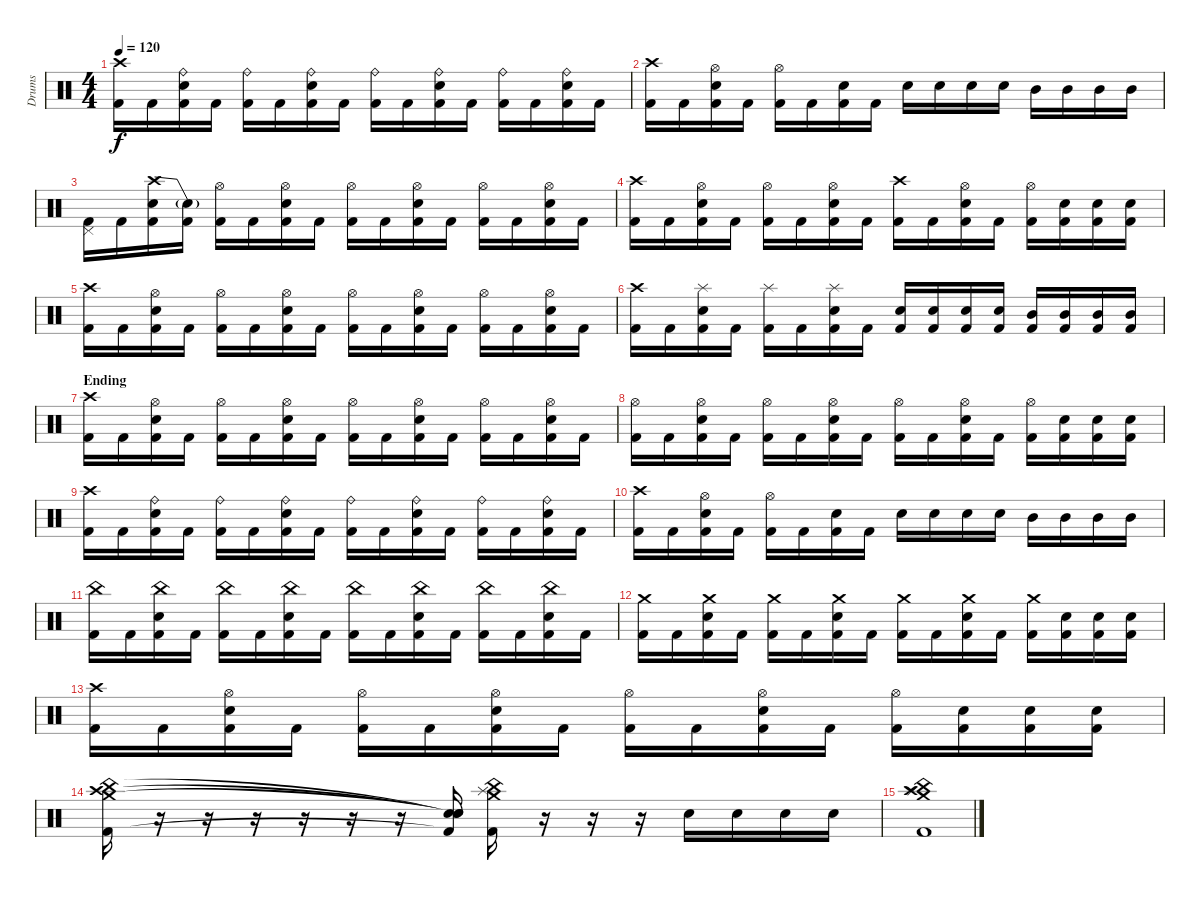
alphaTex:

\track ("Drums" "Drums") {instrument percussion}
\staff {score}
\articulation defaults
\ts (4 4)
\tempo 120
\clef neutral
\ks c
("Crash high (hit)" "Kick (hit) 2").16{dy f} "Kick (hit) 2".16 ("Ride (bell)" "Kick (hit) 2" "Electric Snare (hit)").16 "Kick (hit) 2".16 ("Ride (bell)" "Kick (hit) 2").16 "Kick (hit) 2".16 ("Ride (bell)" "Kick (hit) 2" "Electric Snare (hit)").16 "Kick (hit) 2".16 ("Ride (bell)" "Kick (hit) 2").16 "Kick (hit) 2".16 ("Ride (bell)" "Kick (hit) 2" "Electric Snare (hit)").16 "Kick (hit) 2".16 ("Ride (bell)" "Kick (hit) 2").16 "Kick (hit) 2".16 ("Ride (bell)" "Kick (hit) 2" "Electric Snare (hit)").16 "Kick (hit) 2".16 |
("Crash high (hit)" "Kick (hit) 2").16 "Kick (hit) 2".16 ("Hi-Hat (open)" "Kick (hit) 2" "Electric Snare (hit)").16 "Kick (hit) 2".16 ("Hi-Hat (open)" "Kick (hit) 2").16 "Kick (hit) 2".16 ("Kick (hit) 2" "Electric Snare (hit)").16 "Kick (hit) 2".16 "Electric Snare (hit)".16 "Electric Snare (hit)".16 "Electric Snare (hit)".16 "Electric Snare (hit)".16 "Mid Tom (hit)".16 "Mid Tom (hit)".16 "Mid Tom (hit)".16 "Mid Tom (hit)".16 |
("Pedal Hi-Hat (hit)" "Kick (hit) 2").16 "Kick (hit) 2".16 ("Crash high (hit)"{be (bend 0 0 60 12)} "Kick (hit) 2" "Electric Snare (hit)").16 ("Snare (hit)"{t} "Kick (hit) 2").16 ("Hi-Hat (open)" "Kick (hit) 2").16 "Kick (hit) 2".16 ("Hi-Hat (open)" "Kick (hit) 2" "Electric Snare (hit)").16 "Kick (hit) 2".16 ("Hi-Hat (open)" "Kick (hit) 2").16 "Kick (hit) 2".16 ("Hi-Hat (open)" "Kick (hit) 2" "Electric Snare (hit)").16 "Kick (hit) 2".16 ("Hi-Hat (open)" "Kick (hit) 2").16 "Kick (hit) 2".16 ("Hi-Hat (open)" "Kick (hit) 2" "Electric Snare (hit)").16 "Kick (hit) 2".16 |
("Crash high (hit)" "Kick (hit) 2").16 "Kick (hit) 2".16 ("Hi-Hat (open)" "Kick (hit) 2" "Electric Snare (hit)").16 "Kick (hit) 2".16 ("Hi-Hat (open)" "Kick (hit) 2").16 "Kick (hit) 2".16 ("Hi-Hat (open)" "Kick (hit) 2" "Electric Snare (hit)").16 "Kick (hit) 2".16 ("Crash high (hit)" "Kick (hit) 2").16 "Kick (hit) 2".16 ("Hi-Hat (open)" "Kick (hit) 2" "Electric Snare (hit)").16 "Kick (hit) 2".16 ("Hi-Hat (open)" "Kick (hit) 2").16 ("Kick (hit) 2" "Electric Snare (hit)").16 ("Kick (hit) 2" "Electric Snare (hit)").16 ("Kick (hit) 2" "Electric Snare (hit)").16 |
("Crash high (hit)" "Kick (hit) 2").16 "Kick (hit) 2".16 ("Hi-Hat (open)" "Kick (hit) 2" "Electric Snare (hit)").16 "Kick (hit) 2".16 ("Hi-Hat (open)" "Kick (hit) 2").16 "Kick (hit) 2".16 ("Hi-Hat (open)" "Kick (hit) 2" "Electric Snare (hit)").16 "Kick (hit) 2".16 ("Hi-Hat (open)" "Kick (hit) 2").16 "Kick (hit) 2".16 ("Hi-Hat (open)" "Kick (hit) 2" "Electric Snare (hit)").16 "Kick (hit) 2".16 ("Hi-Hat (open)" "Kick (hit) 2").16 "Kick (hit) 2".16 ("Hi-Hat (open)" "Kick (hit) 2" "Electric Snare (hit)").16 "Kick (hit) 2".16 |
("Crash high (hit)" "Kick (hit) 2").16 "Kick (hit) 2".16 ("Splash (hit)" "Kick (hit) 2" "Electric Snare (hit)").16 "Kick (hit) 2".16 ("Splash (hit)" "Kick (hit) 2").16 "Kick (hit) 2".16 ("Splash (hit)" "Kick (hit) 2" "Electric Snare (hit)").16 "Kick (hit) 2".16 ("Kick (hit) 2" "Electric Snare (hit)").16 ("Kick (hit) 2" "Electric Snare (hit)").16 ("Kick (hit) 2" "Electric Snare (hit)").16 ("Kick (hit) 2" "Electric Snare (hit)").16 ("Kick (hit) 2" "Mid Tom (hit)").16 ("Kick (hit) 2" "Mid Tom (hit)").16 ("Kick (hit) 2" "Mid Tom (hit)").16 ("Kick (hit) 2" "Mid Tom (hit)").16 |
\section ("" "Ending")
("Crash high (hit)" "Kick (hit) 2").16 "Kick (hit) 2".16 ("Hi-Hat (open)" "Kick (hit) 2" "Electric Snare (hit)").16 "Kick (hit) 2".16 ("Hi-Hat (open)" "Kick (hit) 2").16 "Kick (hit) 2".16 ("Hi-Hat (open)" "Kick (hit) 2" "Electric Snare (hit)").16 "Kick (hit) 2".16 ("Hi-Hat (open)" "Kick (hit) 2").16 "Kick (hit) 2".16 ("Hi-Hat (open)" "Kick (hit) 2" "Electric Snare (hit)").16 "Kick (hit) 2".16 ("Hi-Hat (open)" "Kick (hit) 2").16 "Kick (hit) 2".16 ("Hi-Hat (open)" "Kick (hit) 2" "Electric Snare (hit)").16 "Kick (hit) 2".16 |
("Hi-Hat (open)" "Kick (hit) 2").16 "Kick (hit) 2".16 ("Hi-Hat (open)" "Kick (hit) 2" "Electric Snare (hit)").16 "Kick (hit) 2".16 ("Hi-Hat (open)" "Kick (hit) 2").16 "Kick (hit) 2".16 ("Hi-Hat (open)" "Kick (hit) 2" "Electric Snare (hit)").16 "Kick (hit) 2".16 ("Hi-Hat (open)" "Kick (hit) 2").16 "Kick (hit) 2".16 ("Hi-Hat (open)" "Kick (hit) 2" "Electric Snare (hit)").16 "Kick (hit) 2".16 ("Hi-Hat (open)" "Kick (hit) 2").16 ("Kick (hit) 2" "Electric Snare (hit)").16 ("Kick (hit) 2" "Electric Snare (hit)").16 ("Kick (hit) 2" "Electric Snare (hit)").16 |
("Crash high (hit)" "Kick (hit) 2").16 "Kick (hit) 2".16 ("Ride (bell)" "Kick (hit) 2" "Electric Snare (hit)").16 "Kick (hit) 2".16 ("Ride (bell)" "Kick (hit) 2").16 "Kick (hit) 2".16 ("Ride (bell)" "Kick (hit) 2" "Electric Snare (hit)").16 "Kick (hit) 2".16 ("Ride (bell)" "Kick (hit) 2").16 "Kick (hit) 2".16 ("Ride (bell)" "Kick (hit) 2" "Electric Snare (hit)").16 "Kick (hit) 2".16 ("Ride (bell)" "Kick (hit) 2").16 "Kick (hit) 2".16 ("Ride (bell)" "Kick (hit) 2" "Electric Snare (hit)").16 "Kick (hit) 2".16 |
("Crash high (hit)" "Kick (hit) 2").16 "Kick (hit) 2".16 ("Hi-Hat (open)" "Kick (hit) 2" "Electric Snare (hit)").16 "Kick (hit) 2".16 ("Hi-Hat (open)" "Kick (hit) 2").16 "Kick (hit) 2".16 ("Kick (hit) 2" "Electric Snare (hit)").16 "Kick (hit) 2".16 "Electric Snare (hit)".16 "Electric Snare (hit)".16 "Electric Snare (hit)".16 "Electric Snare (hit)".16 "Mid Tom (hit)".16 "Mid Tom (hit)".16 "Mid Tom (hit)".16 "Mid Tom (hit)".16 |
("China (hit)" "Kick (hit) 2").16 "Kick (hit) 2".16 ("China (hit)" "Kick (hit) 2" "Electric Snare (hit)").16 "Kick (hit) 2".16 ("China (hit)" "Kick (hit) 2").16 "Kick (hit) 2".16 ("China (hit)" "Kick (hit) 2" "Electric Snare (hit)").16 "Kick (hit) 2".16 ("China (hit)" "Kick (hit) 2").16 "Kick (hit) 2".16 ("China (hit)" "Kick (hit) 2" "Electric Snare (hit)").16 "Kick (hit) 2".16 ("China (hit)" "Kick (hit) 2").16 "Kick (hit) 2".16 ("China (hit)" "Kick (hit) 2" "Electric Snare (hit)").16 "Kick (hit) 2".16 |
("Crash medium (hit)" "Kick (hit) 2").16 "Kick (hit) 2".16 ("Crash medium (hit)" "Kick (hit) 2" "Electric Snare (hit)").16 "Kick (hit) 2".16 ("Crash medium (hit)" "Kick (hit) 2").16 "Kick (hit) 2".16 ("Crash medium (hit)" "Kick (hit) 2" "Electric Snare (hit)").16 "Kick (hit) 2".16 ("Crash medium (hit)" "Kick (hit) 2").16 "Kick (hit) 2".16 ("Crash medium (hit)" "Kick (hit) 2" "Electric Snare (hit)").16 "Kick (hit) 2".16 ("Crash medium (hit)" "Kick (hit) 2").16 ("Kick (hit) 2" "Electric Snare (hit)").16 ("Kick (hit) 2" "Electric Snare (hit)").16 ("Kick (hit) 2" "Electric Snare (hit)").16 |
("Crash high (hit)" "Kick (hit) 2").16 "Kick (hit) 2".16 ("Hi-Hat (open)" "Kick (hit) 2" "Electric Snare (hit)").16 "Kick (hit) 2".16 ("Hi-Hat (open)" "Kick (hit) 2").16 "Kick (hit) 2".16 ("Hi-Hat (open)" "Kick (hit) 2" "Electric Snare (hit)").16 "Kick (hit) 2".16 ("Hi-Hat (open)" "Kick (hit) 2").16 "Kick (hit) 2".16 ("Hi-Hat (open)" "Kick (hit) 2" "Electric Snare (hit)").16 "Kick (hit) 2".16 ("Hi-Hat (open)" "Kick (hit) 2").16 ("Kick (hit) 2" "Electric Snare (hit)").16 ("Kick (hit) 2" "Electric Snare (hit)").16 ("Kick (hit) 2" "Electric Snare (hit)").16 |
("Crash high (hit)" "Crash medium (hit)" "China (hit)" "Kick (hit) 2").16 r.16 r.16 r.16 r.16 r.16 r.16 ("Snare (hit)"{t} "Snare (hit)"{t} "Snare (hit)"{t} "Kick (hit) 2"{t}).16 ("Crash medium (hit)" "China (hit)" "Splash (hit)" "Kick (hit) 2").16 r.16 r.16 r.16 "Electric Snare (hit)".16 "Electric Snare (hit)".16 "Electric Snare (hit)".16 "Electric Snare (hit)".16 |
("Crash medium (hit)" "Splash (hit)" "Crash high (hit)" "China (hit)" "Kick (hit) 2").1
